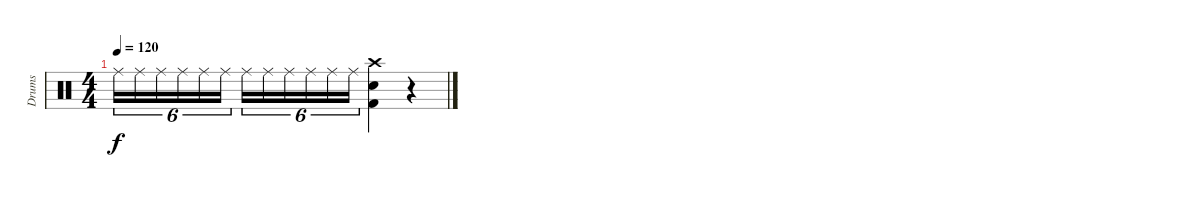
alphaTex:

\track ("Drums" "Drums") {instrument percussion}
\staff {score}
\articulation defaults
\ts (4 4)
\tempo 120
\clef neutral
\ks c "Ride (middle)".16{tu (6 4) dy f} "Ride (middle)".16{tu (6 4)} "Ride (middle)".16{tu (6 4)} "Ride (middle)".16{tu (6 4)} "Ride (middle)".16{tu (6 4)} "Ride (middle)".16{tu (6 4)} "Ride (middle)".16{tu (6 4)} "Ride (middle)".16{tu (6 4)} "Ride (middle)".16{tu (6 4)} "Ride (middle)".16{tu (6 4)} "Ride (middle)".16{tu (6 4)} "Ride (middle)".16{tu (6 4)}
("Crash high (hit)" "Electric Snare (hit)" "Kick (hit) 2").4 r.4
